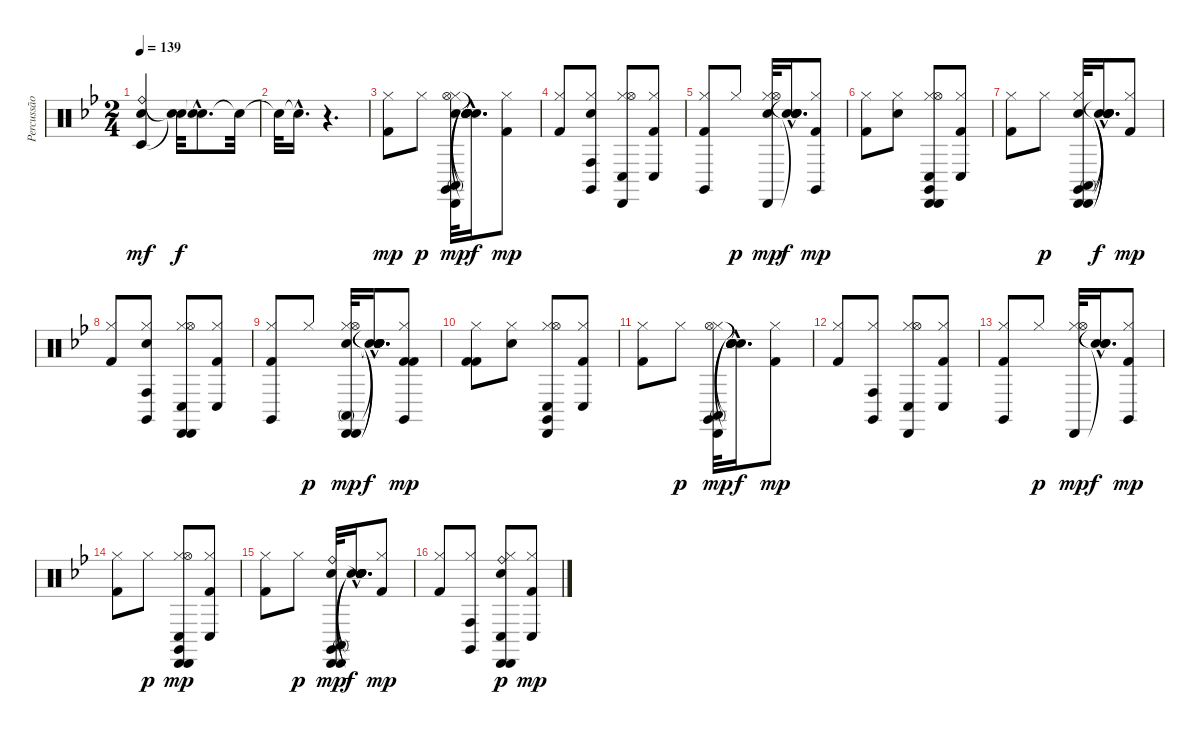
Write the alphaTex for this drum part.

\track ("Percussão" "Percussão") {instrument percussion}
\staff {score}
\articulation defaults
\ts (2 4)
\tempo 139
\clef neutral
\ks bb
("Timbale low (hit)" "Ride (bell)" "Electric Snare (hit)").4{dy mf} ("Snare (hit)"{t} "Snare (hit)"{t}).32{dy f} ("Snare (hit)"{hac t} "Snare (hit)"{hac t}).8{d} "Snare (hit)"{t}.32 |
"Snare (hit)"{t}.32 "Snare (hit)"{hac t}.16{d} r.4{d} |
("Hi-Hat (closed)" "Kick (hit) 2").8{dy mp} "Hi-Hat (closed)".8{dy p} ("Conga high (mute)" "Cabasa (hit)" "Electric Snare (hit)" "Claves (hit)" "Hi-Hat (closed)" "Hi-Hat (open)").32{dy mp} ("Snare (hit)"{hac t} "Snare (hit)"{hac t} "Snare (hit)"{hac t} "Snare (hit)"{hac t} "Snare (hit)"{hac t} "Snare (hit)"{hac t}).16{d dy f} ("Hi-Hat (closed)" "Kick (hit) 2").8{dy mp} |
("Hi-Hat (closed)" "Kick (hit) 2").8 ("Hi-Hat (closed)" "Claves (hit)" "Electric Snare (hit)" "Conga high (hit)").8 ("Cabasa (hit)" "Conga low (hit)" "Hi-Hat (closed)" "Hi-Hat (open)").8 ("Hi-Hat (closed)" "Conga low (hit)" "Kick (hit) 2").8 |
("Hi-Hat (closed)" "Claves (hit)" "Kick (hit) 2").8 "Hi-Hat (closed)".8{dy p} ("Cabasa (hit)" "Electric Snare (hit)" "Hi-Hat (closed)" "Hi-Hat (open)").32{dy mp} ("Snare (hit)"{hac t} "Snare (hit)"{hac t} "Snare (hit)"{hac t} "Snare (hit)"{hac t}).16{d dy f} ("Hi-Hat (closed)" "Claves (hit)" "Kick (hit) 2").8{dy mp} |
("Hi-Hat (closed)" "Kick (hit) 2").8 ("Hi-Hat (closed)" "Electric Snare (hit)").8 ("Cabasa (hit)" "Cabasa (hit)" "Conga low (hit)" "Claves (hit)" "Hi-Hat (closed)" "Hi-Hat (open)").8 ("Hi-Hat (closed)" "Conga low (hit)" "Kick (hit) 2").8 |
("Hi-Hat (closed)" "Kick (hit) 2").8 "Hi-Hat (closed)".8{dy p} ("Conga high (mute)" "Cabasa (hit)" "Cabasa (hit)" "Electric Snare (hit)" "Claves (hit)" "Hi-Hat (closed)").32 ("Snare (hit)"{hac t} "Snare (hit)"{hac t} "Snare (hit)"{hac t} "Snare (hit)"{hac t} "Snare (hit)"{hac t} "Snare (hit)"{hac t}).16{d dy f} ("Hi-Hat (closed)" "Kick (hit) 2").8{dy mp} |
("Hi-Hat (closed)" "Kick (hit) 2").8 ("Hi-Hat (closed)" "Claves (hit)" "Electric Snare (hit)" "Conga high (hit)").8 ("Cabasa (hit)" "Cabasa (hit)" "Conga low (hit)" "Hi-Hat (closed)" "Hi-Hat (open)").8 ("Hi-Hat (closed)" "Conga low (hit)" "Kick (hit) 2").8 |
("Hi-Hat (closed)" "Claves (hit)" "Kick (hit) 2").8 "Hi-Hat (closed)".8{dy p} ("Conga high (mute)" "Cabasa (hit)" "Cabasa (hit)" "Electric Snare (hit)" "Hi-Hat (closed)" "Hi-Hat (open)").32{dy mp} ("Snare (hit)"{hac t} "Snare (hit)"{hac t} "Snare (hit)"{hac t} "Snare (hit)"{hac t} "Snare (hit)"{hac t} "Snare (hit)"{hac t}).16{d dy f} ("Hi-Hat (closed)" "Claves (hit)" "Kick (hit) 2" "Kick (hit) 2").8{dy mp} |
("Hi-Hat (closed)" "Kick (hit) 2" "Kick (hit) 2").8 ("Hi-Hat (closed)" "Electric Snare (hit)").8 ("Cabasa (hit)" "Conga low (hit)" "Claves (hit)" "Hi-Hat (closed)" "Hi-Hat (open)").8 ("Hi-Hat (closed)" "Conga low (hit)" "Kick (hit) 2").8 |
("Hi-Hat (closed)" "Kick (hit) 2").8 "Hi-Hat (closed)".8{dy p} ("Conga high (mute)" "Cabasa (hit)" "Claves (hit)" "Hi-Hat (closed)" "Hi-Hat (open)").32{dy mp} ("Snare (hit)"{hac t} "Snare (hit)"{hac t} "Snare (hit)"{hac t} "Snare (hit)"{hac t} "Snare (hit)"{hac t}).16{d dy f} ("Hi-Hat (closed)" "Kick (hit) 2").8{dy mp} |
("Hi-Hat (closed)" "Kick (hit) 2").8 ("Hi-Hat (closed)" "Claves (hit)" "Conga high (hit)").8 ("Cabasa (hit)" "Conga low (hit)" "Hi-Hat (closed)" "Hi-Hat (open)").8 ("Hi-Hat (closed)" "Conga low (hit)" "Kick (hit) 2").8 |
("Hi-Hat (closed)" "Claves (hit)" "Kick (hit) 2").8 "Hi-Hat (closed)".8{dy p} ("Cabasa (hit)" "Hi-Hat (closed)" "Hi-Hat (open)").32{dy mp} ("Snare (hit)"{hac t} "Snare (hit)"{hac t} "Snare (hit)"{hac t}).16{d dy f} ("Hi-Hat (closed)" "Claves (hit)" "Kick (hit) 2").8{dy mp} |
("Hi-Hat (closed)" "Kick (hit) 2").8 "Hi-Hat (closed)".8{dy p} ("Cabasa (hit)" "Cabasa (hit)" "Conga low (hit)" "Claves (hit)" "Hi-Hat (closed)" "Hi-Hat (open)").8{dy mp} ("Hi-Hat (closed)" "Conga low (hit)" "Kick (hit) 2").8 |
("Hi-Hat (closed)" "Kick (hit) 2").8 "Hi-Hat (closed)".8{dy p} ("Ride (bell)" "Electric Snare (hit)" "Conga high (mute)" "Cabasa (hit)" "Cabasa (hit)" "Claves (hit)").32{dy mp} ("Snare (hit)"{hac t} "Snare (hit)"{hac t} "Snare (hit)"{hac t} "Snare (hit)"{hac t} "Snare (hit)"{hac t} "Snare (hit)"{hac t}).16{d dy f} ("Hi-Hat (closed)" "Kick (hit) 2").8{dy mp} |
("Hi-Hat (closed)" "Kick (hit) 2").8 ("Hi-Hat (closed)" "Claves (hit)" "Conga high (hit)").8 ("Ride (bell)" "Electric Snare (hit)" "Cabasa (hit)" "Cabasa (hit)" "Conga low (hit)" "Hi-Hat (closed)").8{dy p} ("Hi-Hat (closed)" "Conga low (hit)" "Kick (hit) 2").8{dy mp}
